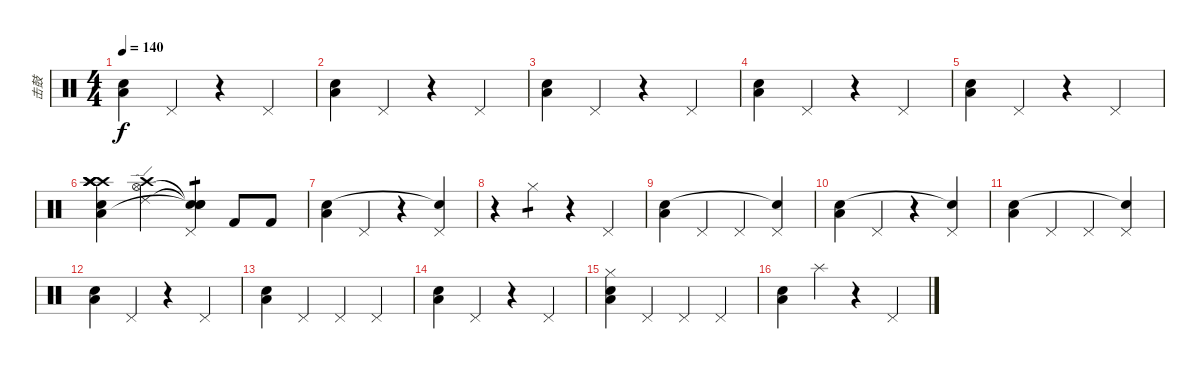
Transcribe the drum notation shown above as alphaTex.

\track ("击鼓" "击鼓") {instrument percussion}
\staff {score}
\articulation defaults
\ts (4 4)
\tempo 140
\clef neutral
\ks c
("Low Floor Tom (hit)" "Snare (hit) 2").4{dy f} "Pedal Hi-Hat (hit)".4 r.4 "Pedal Hi-Hat (hit)".4 |
("Low Floor Tom (hit)" "Snare (hit) 2").4 "Pedal Hi-Hat (hit)".4 r.4 "Pedal Hi-Hat (hit)".4 |
("Low Floor Tom (hit)" "Snare (hit) 2").4 "Pedal Hi-Hat (hit)".4 r.4 "Pedal Hi-Hat (hit)".4 |
("Low Floor Tom (hit)" "Snare (hit) 2").4 "Pedal Hi-Hat (hit)".4 r.4 "Pedal Hi-Hat (hit)".4 |
("Low Floor Tom (hit)" "Snare (hit) 2").4 "Pedal Hi-Hat (hit)".4 r.4 "Pedal Hi-Hat (hit)".4 |
("Crash high (hit)" "Crash high (hit)" "Crash high (hit)" "Low Floor Tom (hit)" "Snare (hit) 2" "Crash high (hit)").4 ("Ride (edge) 2" "Hi-Hat (open)" "Crash high (hit)").4 ("Snare (hit)"{t} "Snare (hit)"{t} "Pedal Hi-Hat (hit)" "Snare (hit)"{t}).4{tp 1} "Kick (hit) 2".8 "Kick (hit) 2".8 |
("Low Floor Tom (hit)" "Snare (hit) 2").4 "Pedal Hi-Hat (hit)".4 r.4 ("Pedal Hi-Hat (hit)" "Snare (hit)"{t}).4 |
r.4 "Hi-Hat (closed)".4{tp 1} r.4 "Pedal Hi-Hat (hit)".4 |
("Low Floor Tom (hit)" "Snare (hit) 2").4 "Pedal Hi-Hat (hit)".4 "Pedal Hi-Hat (hit)".4 ("Pedal Hi-Hat (hit)" "Snare (hit)"{t}).4 |
("Low Floor Tom (hit)" "Snare (hit) 2").4 "Pedal Hi-Hat (hit)".4 r.4 ("Pedal Hi-Hat (hit)" "Snare (hit)"{t}).4 |
("Low Floor Tom (hit)" "Snare (hit) 2").4 "Pedal Hi-Hat (hit)".4 "Pedal Hi-Hat (hit)".4 ("Pedal Hi-Hat (hit)" "Snare (hit)"{t}).4 |
("Low Floor Tom (hit)" "Snare (hit) 2").4 "Pedal Hi-Hat (hit)".4 r.4 "Pedal Hi-Hat (hit)".4 |
("Low Floor Tom (hit)" "Snare (hit) 2").4 "Pedal Hi-Hat (hit)".4 "Pedal Hi-Hat (hit)".4 "Pedal Hi-Hat (hit)".4 |
("Low Floor Tom (hit)" "Snare (hit) 2").4 "Pedal Hi-Hat (hit)".4 r.4 "Pedal Hi-Hat (hit)".4 |
("Hi-Hat (closed)" "Low Floor Tom (hit)" "Snare (hit) 2").4 "Pedal Hi-Hat (hit)".4 "Pedal Hi-Hat (hit)".4 "Pedal Hi-Hat (hit)".4 |
("Low Floor Tom (hit)" "Snare (hit) 2").4 "Splash (hit)".4 r.4 "Pedal Hi-Hat (hit)".4
